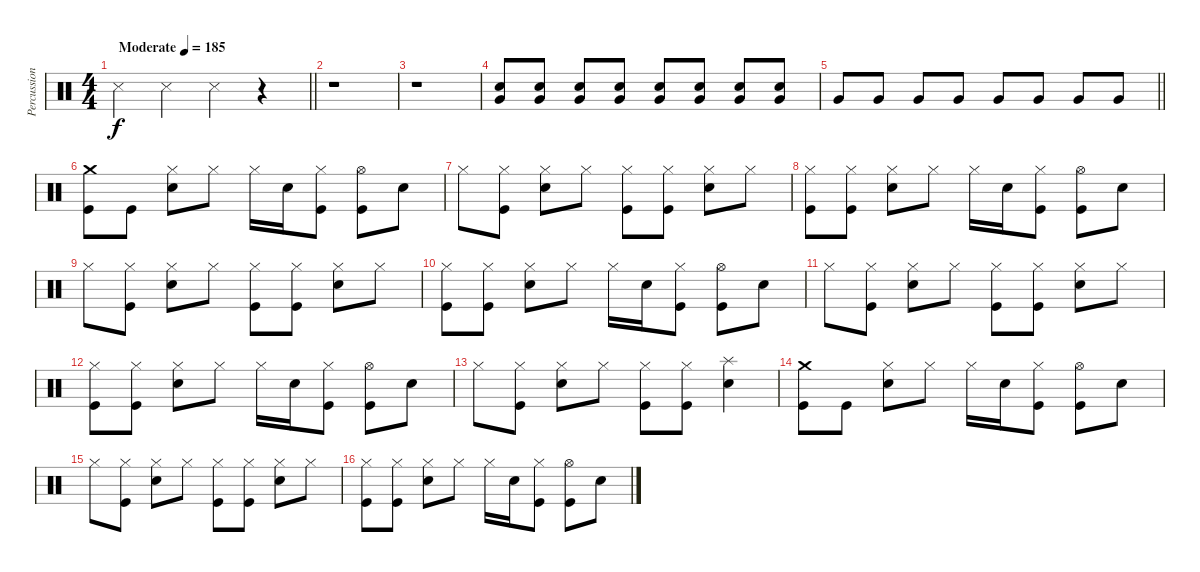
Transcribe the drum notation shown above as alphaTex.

\track ("Percussion" "Percussion") {instrument percussion}
\staff {score}
\articulation defaults
\ts (4 4)
\tempo (185 "Moderate")
\clef neutral
\barLineRight lightlight
\ks c "Snare (side stick) 3".4{dy f} "Snare (side stick) 3".4 "Snare (side stick) 3".4
r.4 |
r.1 |
r.1 |
("Electric Snare (hit)" "Very Low Tom (hit)").8{volume 3} ("Electric Snare (hit)" "Very Low Tom (hit)").8{volume 13} ("Electric Snare (hit)" "Very Low Tom (hit)").8 ("Electric Snare (hit)" "Very Low Tom (hit)").8 ("Electric Snare (hit)" "Very Low Tom (hit)").8 ("Electric Snare (hit)" "Very Low Tom (hit)").8 ("Electric Snare (hit)" "Very Low Tom (hit)").8 ("Electric Snare (hit)" "Very Low Tom (hit)").8 |
\barLineRight lightlight "Very Low Tom (hit)".8 "Very Low Tom (hit)".8 "Very Low Tom (hit)".8 "Very Low Tom (hit)".8 "Very Low Tom (hit)".8 "Very Low Tom (hit)".8 "Very Low Tom (hit)".8 "Very Low Tom (hit)".8
|
("Crash medium (hit)" "Kick (hit)").8 "Kick (hit)".8 ("Hi-Hat (closed)" "Electric Snare (hit)").8 "Hi-Hat (closed)".8 "Hi-Hat (closed)".16 "Electric Snare (hit)".16 ("Hi-Hat (closed)" "Kick (hit)").8 ("Hi-Hat (open)" "Kick (hit)").8 "Electric Snare (hit)".8 |
"Hi-Hat (closed)".8 ("Hi-Hat (closed)" "Kick (hit)").8 ("Hi-Hat (closed)" "Electric Snare (hit)").8 "Hi-Hat (closed)".8 ("Hi-Hat (closed)" "Kick (hit)").8 ("Hi-Hat (closed)" "Kick (hit)").8 ("Hi-Hat (closed)" "Electric Snare (hit)").8 "Hi-Hat (closed)".8 |
("Hi-Hat (closed)" "Kick (hit)").8 ("Hi-Hat (closed)" "Kick (hit)").8 ("Hi-Hat (closed)" "Electric Snare (hit)").8 "Hi-Hat (closed)".8 "Hi-Hat (closed)".16 "Electric Snare (hit)".16 ("Hi-Hat (closed)" "Kick (hit)").8 ("Hi-Hat (open)" "Kick (hit)").8 "Electric Snare (hit)".8 |
"Hi-Hat (closed)".8 ("Hi-Hat (closed)" "Kick (hit)").8 ("Hi-Hat (closed)" "Electric Snare (hit)").8 "Hi-Hat (closed)".8 ("Hi-Hat (closed)" "Kick (hit)").8 ("Hi-Hat (closed)" "Kick (hit)").8 ("Hi-Hat (closed)" "Electric Snare (hit)").8 "Hi-Hat (closed)".8 |
("Hi-Hat (closed)" "Kick (hit)").8 ("Hi-Hat (closed)" "Kick (hit)").8 ("Hi-Hat (closed)" "Electric Snare (hit)").8 "Hi-Hat (closed)".8 "Hi-Hat (closed)".16 "Electric Snare (hit)".16 ("Hi-Hat (closed)" "Kick (hit)").8 ("Hi-Hat (open)" "Kick (hit)").8 "Electric Snare (hit)".8 |
"Hi-Hat (closed)".8 ("Hi-Hat (closed)" "Kick (hit)").8 ("Hi-Hat (closed)" "Electric Snare (hit)").8 "Hi-Hat (closed)".8 ("Hi-Hat (closed)" "Kick (hit)").8 ("Hi-Hat (closed)" "Kick (hit)").8 ("Hi-Hat (closed)" "Electric Snare (hit)").8 "Hi-Hat (closed)".8 |
("Hi-Hat (closed)" "Kick (hit)").8 ("Hi-Hat (closed)" "Kick (hit)").8 ("Hi-Hat (closed)" "Electric Snare (hit)").8 "Hi-Hat (closed)".8 "Hi-Hat (closed)".16 "Electric Snare (hit)".16 ("Hi-Hat (closed)" "Kick (hit)").8 ("Hi-Hat (open)" "Kick (hit)").8 "Electric Snare (hit)".8 |
"Hi-Hat (closed)".8 ("Hi-Hat (closed)" "Kick (hit)").8 ("Hi-Hat (closed)" "Electric Snare (hit)").8 "Hi-Hat (closed)".8 ("Hi-Hat (closed)" "Kick (hit)").8 ("Hi-Hat (closed)" "Kick (hit)").8 ("Splash (hit)" "Electric Snare (hit)").4 |
("Crash medium (hit)" "Kick (hit)").8 "Kick (hit)".8 ("Hi-Hat (closed)" "Electric Snare (hit)").8 "Hi-Hat (closed)".8 "Hi-Hat (closed)".16 "Electric Snare (hit)".16 ("Hi-Hat (closed)" "Kick (hit)").8 ("Hi-Hat (open)" "Kick (hit)").8 "Electric Snare (hit)".8 |
"Hi-Hat (closed)".8 ("Hi-Hat (closed)" "Kick (hit)").8 ("Hi-Hat (closed)" "Electric Snare (hit)").8 "Hi-Hat (closed)".8 ("Hi-Hat (closed)" "Kick (hit)").8 ("Hi-Hat (closed)" "Kick (hit)").8 ("Hi-Hat (closed)" "Electric Snare (hit)").8 "Hi-Hat (closed)".8 |
("Hi-Hat (closed)" "Kick (hit)").8 ("Hi-Hat (closed)" "Kick (hit)").8 ("Hi-Hat (closed)" "Electric Snare (hit)").8 "Hi-Hat (closed)".8 "Hi-Hat (closed)".16 "Electric Snare (hit)".16 ("Hi-Hat (closed)" "Kick (hit)").8 ("Hi-Hat (open)" "Kick (hit)").8 "Electric Snare (hit)".8
